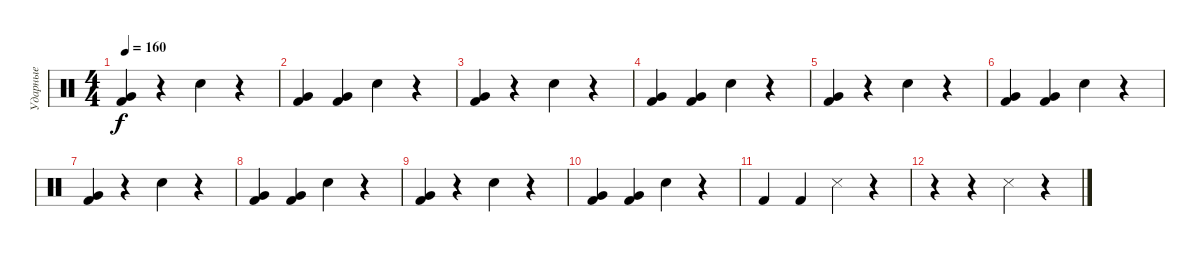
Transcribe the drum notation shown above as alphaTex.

\track ("Ударные" "Ударные") {instrument percussion}
\staff {score}
\articulation defaults
\ts (4 4)
\tempo 160
\clef neutral
\ks c
("Very Low Tom (hit)" "Kick (hit) 2").4{dy f} r.4 "Snare (hit) 2".4 r.4 |
("Very Low Tom (hit)" "Kick (hit) 2").4 ("Very Low Tom (hit)" "Kick (hit) 2").4 "Snare (hit) 2".4 r.4 |
("Very Low Tom (hit)" "Kick (hit) 2").4 r.4 "Snare (hit) 2".4 r.4 |
("Very Low Tom (hit)" "Kick (hit) 2").4 ("Very Low Tom (hit)" "Kick (hit) 2").4 "Snare (hit) 2".4 r.4 |
("Very Low Tom (hit)" "Kick (hit) 2").4 r.4 "Snare (hit) 2".4 r.4 |
("Very Low Tom (hit)" "Kick (hit) 2").4 ("Very Low Tom (hit)" "Kick (hit) 2").4 "Snare (hit) 2".4 r.4 |
("Very Low Tom (hit)" "Kick (hit) 2").4 r.4 "Snare (hit) 2".4 r.4 |
("Very Low Tom (hit)" "Kick (hit) 2").4 ("Very Low Tom (hit)" "Kick (hit) 2").4 "Snare (hit) 2".4 r.4 |
("Very Low Tom (hit)" "Kick (hit) 2").4 r.4 "Snare (hit) 2".4 r.4 |
("Very Low Tom (hit)" "Kick (hit) 2").4 ("Very Low Tom (hit)" "Kick (hit) 2").4 "Snare (hit) 2".4 r.4 |
"Kick (hit) 2".4 "Kick (hit) 2".4 "Snare (side stick) 3".4 r.4 |
r.4 r.4 "Snare (side stick) 3".4 r.4
